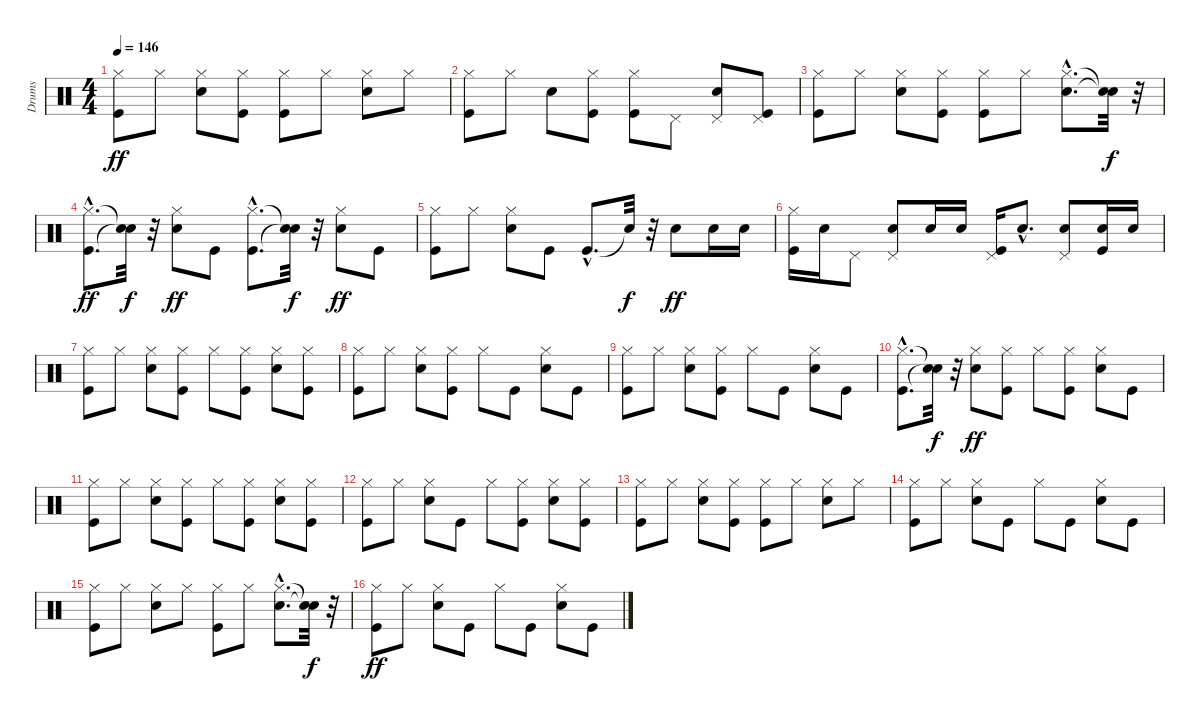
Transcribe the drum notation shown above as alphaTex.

\track ("Drums" "Drums") {instrument percussion}
\staff {score}
\articulation defaults
\ts (4 4)
\tempo 146
\clef neutral
\ks c
("Kick (hit)" "Hi-Hat (closed)").8{dy ff} "Hi-Hat (closed)".8 ("Snare (hit) 2" "Hi-Hat (closed)").8 ("Kick (hit)" "Hi-Hat (closed)").8 ("Kick (hit)" "Hi-Hat (closed)").8 "Hi-Hat (closed)".8 ("Snare (hit) 2" "Hi-Hat (closed)").8 "Hi-Hat (closed)".8 |
("Kick (hit)" "Hi-Hat (closed)").8 "Hi-Hat (closed)".8 "Snare (hit) 2".8 ("Kick (hit)" "Hi-Hat (closed)").8 ("Kick (hit)" "Hi-Hat (closed)").8 "Pedal Hi-Hat (hit)".8 ("Snare (hit) 2" "Pedal Hi-Hat (hit)").8 ("Kick (hit)" "Pedal Hi-Hat (hit)").8 |
("Kick (hit)" "Hi-Hat (closed)").8 "Hi-Hat (closed)".8 ("Snare (hit) 2" "Hi-Hat (closed)").8 ("Kick (hit)" "Hi-Hat (closed)").8 ("Kick (hit)" "Hi-Hat (closed)").8 "Hi-Hat (closed)".8 ("Snare (hit) 2"{hac} "Hi-Hat (closed)"{hac}).8{d} ("Snare (hit)"{t} "Snare (hit)"{t}).32{dy f} r.32 |
("Kick (hit)"{hac} "Hi-Hat (closed)"{hac}).8{d dy ff} ("Snare (hit)"{t} "Snare (hit)"{t}).32{dy f} r.32 ("Snare (hit) 2" "Hi-Hat (closed)").8{dy ff} "Kick (hit)".8 ("Kick (hit)"{hac} "Hi-Hat (closed)"{hac}).8{d} ("Snare (hit)"{t} "Snare (hit)"{t}).32{dy f} r.32 ("Snare (hit) 2" "Hi-Hat (closed)").8{dy ff} "Kick (hit)".8 |
("Kick (hit)" "Hi-Hat (closed)").8 "Hi-Hat (closed)".8 ("Snare (hit) 2" "Hi-Hat (closed)").8 "Kick (hit)".8 "Kick (hit)"{hac}.8{d} "Snare (hit)"{t}.32{dy f} r.32 "Snare (hit) 2".8{dy ff} "Snare (hit) 2".16 "Snare (hit) 2".16 |
("Kick (hit)" "Hi-Hat (closed)").16 "Snare (hit) 2".16 "Pedal Hi-Hat (hit)".8 ("Snare (hit) 2" "Pedal Hi-Hat (hit)").8 "Snare (hit) 2".16 "Snare (hit) 2".16 ("Kick (hit)" "Pedal Hi-Hat (hit)").16 "Snare (hit) 2"{hac}.8{d} ("Snare (hit) 2" "Pedal Hi-Hat (hit)").8 ("Kick (hit)" "Snare (hit) 2").16 "Snare (hit) 2".16 |
("Kick (hit)" "Hi-Hat (closed)").8 "Hi-Hat (closed)".8 ("Snare (hit) 2" "Hi-Hat (closed)").8 ("Kick (hit)" "Hi-Hat (closed)").8 "Hi-Hat (closed)".8 ("Kick (hit)" "Hi-Hat (closed)").8 ("Snare (hit) 2" "Hi-Hat (closed)").8 ("Kick (hit)" "Hi-Hat (closed)").8 |
("Kick (hit)" "Hi-Hat (closed)").8 "Hi-Hat (closed)".8 ("Snare (hit) 2" "Hi-Hat (closed)").8 ("Kick (hit)" "Hi-Hat (closed)").8 "Hi-Hat (closed)".8 "Kick (hit)".8 ("Snare (hit) 2" "Hi-Hat (closed)").8 "Kick (hit)".8 |
("Kick (hit)" "Hi-Hat (closed)").8 "Hi-Hat (closed)".8 ("Snare (hit) 2" "Hi-Hat (closed)").8 ("Kick (hit)" "Hi-Hat (closed)").8 "Hi-Hat (closed)".8 "Kick (hit)".8 ("Snare (hit) 2" "Hi-Hat (closed)").8 "Kick (hit)".8 |
("Kick (hit)"{hac} "Hi-Hat (closed)"{hac}).8{d} ("Snare (hit)"{t} "Snare (hit)"{t}).32{dy f} r.32 ("Snare (hit) 2" "Hi-Hat (closed)").8{dy ff} ("Kick (hit)" "Hi-Hat (closed)").8 "Hi-Hat (closed)".8 ("Kick (hit)" "Hi-Hat (closed)").8 ("Snare (hit) 2" "Hi-Hat (closed)").8 "Kick (hit)".8 |
("Kick (hit)" "Hi-Hat (closed)").8 "Hi-Hat (closed)".8 ("Snare (hit) 2" "Hi-Hat (closed)").8 ("Kick (hit)" "Hi-Hat (closed)").8 "Hi-Hat (closed)".8 ("Kick (hit)" "Hi-Hat (closed)").8 ("Snare (hit) 2" "Hi-Hat (closed)").8 ("Kick (hit)" "Hi-Hat (closed)").8 |
("Kick (hit)" "Hi-Hat (closed)").8 "Hi-Hat (closed)".8 ("Snare (hit) 2" "Hi-Hat (closed)").8 "Kick (hit)".8 "Hi-Hat (closed)".8 ("Kick (hit)" "Hi-Hat (closed)").8 ("Snare (hit) 2" "Hi-Hat (closed)").8 ("Kick (hit)" "Hi-Hat (closed)").8 |
("Kick (hit)" "Hi-Hat (closed)").8 "Hi-Hat (closed)".8 ("Snare (hit) 2" "Hi-Hat (closed)").8 ("Kick (hit)" "Hi-Hat (closed)").8 ("Kick (hit)" "Hi-Hat (closed)").8 "Hi-Hat (closed)".8 ("Snare (hit) 2" "Hi-Hat (closed)").8 "Hi-Hat (closed)".8 |
("Kick (hit)" "Hi-Hat (closed)").8 "Hi-Hat (closed)".8 ("Snare (hit) 2" "Hi-Hat (closed)").8 "Kick (hit)".8 "Hi-Hat (closed)".8 "Kick (hit)".8 ("Snare (hit) 2" "Hi-Hat (closed)").8 "Kick (hit)".8 |
("Kick (hit)" "Hi-Hat (closed)").8 "Hi-Hat (closed)".8 ("Snare (hit) 2" "Hi-Hat (closed)").8 "Hi-Hat (closed)".8 ("Kick (hit)" "Hi-Hat (closed)").8 "Hi-Hat (closed)".8 ("Snare (hit) 2"{hac} "Hi-Hat (closed)"{hac}).8{d} ("Snare (hit)"{t} "Snare (hit)"{t}).32{dy f} r.32 |
("Kick (hit)" "Hi-Hat (closed)").8{dy ff} "Hi-Hat (closed)".8 ("Snare (hit) 2" "Hi-Hat (closed)").8 "Kick (hit)".8 "Hi-Hat (closed)".8 "Kick (hit)".8 ("Snare (hit) 2" "Hi-Hat (closed)").8 "Kick (hit)".8
